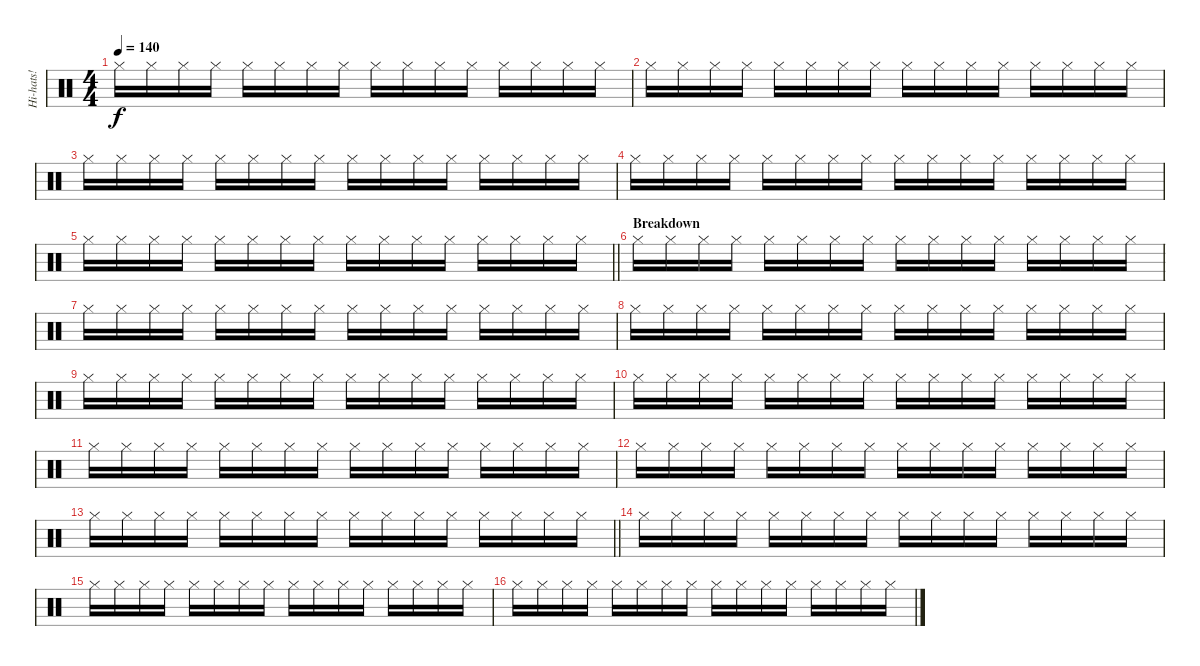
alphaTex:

\track ("Hi-hats!" "Hi-hats!") {instrument percussion}
\staff {score}
\articulation defaults
\ts (4 4)
\tempo 140
\clef neutral
\ks c "Hi-Hat (closed)".16{dy f} "Hi-Hat (closed)".16 "Hi-Hat (closed)".16 "Hi-Hat (closed)".16 "Hi-Hat (closed)".16 "Hi-Hat (closed)".16 "Hi-Hat (closed)".16 "Hi-Hat (closed)".16 "Hi-Hat (closed)".16 "Hi-Hat (closed)".16 "Hi-Hat (closed)".16 "Hi-Hat (closed)".16 "Hi-Hat (closed)".16 "Hi-Hat (closed)".16 "Hi-Hat (closed)".16 "Hi-Hat (closed)".16
|
"Hi-Hat (closed)".16 "Hi-Hat (closed)".16 "Hi-Hat (closed)".16 "Hi-Hat (closed)".16 "Hi-Hat (closed)".16 "Hi-Hat (closed)".16 "Hi-Hat (closed)".16 "Hi-Hat (closed)".16 "Hi-Hat (closed)".16 "Hi-Hat (closed)".16 "Hi-Hat (closed)".16 "Hi-Hat (closed)".16 "Hi-Hat (closed)".16 "Hi-Hat (closed)".16 "Hi-Hat (closed)".16 "Hi-Hat (closed)".16 |
"Hi-Hat (closed)".16 "Hi-Hat (closed)".16 "Hi-Hat (closed)".16 "Hi-Hat (closed)".16 "Hi-Hat (closed)".16 "Hi-Hat (closed)".16 "Hi-Hat (closed)".16 "Hi-Hat (closed)".16 "Hi-Hat (closed)".16 "Hi-Hat (closed)".16 "Hi-Hat (closed)".16 "Hi-Hat (closed)".16 "Hi-Hat (closed)".16 "Hi-Hat (closed)".16 "Hi-Hat (closed)".16 "Hi-Hat (closed)".16 |
"Hi-Hat (closed)".16 "Hi-Hat (closed)".16 "Hi-Hat (closed)".16 "Hi-Hat (closed)".16 "Hi-Hat (closed)".16 "Hi-Hat (closed)".16 "Hi-Hat (closed)".16 "Hi-Hat (closed)".16 "Hi-Hat (closed)".16 "Hi-Hat (closed)".16 "Hi-Hat (closed)".16 "Hi-Hat (closed)".16 "Hi-Hat (closed)".16 "Hi-Hat (closed)".16 "Hi-Hat (closed)".16 "Hi-Hat (closed)".16 |
\barLineRight lightlight "Hi-Hat (closed)".16 "Hi-Hat (closed)".16 "Hi-Hat (closed)".16 "Hi-Hat (closed)".16 "Hi-Hat (closed)".16 "Hi-Hat (closed)".16 "Hi-Hat (closed)".16 "Hi-Hat (closed)".16 "Hi-Hat (closed)".16 "Hi-Hat (closed)".16 "Hi-Hat (closed)".16 "Hi-Hat (closed)".16 "Hi-Hat (closed)".16 "Hi-Hat (closed)".16 "Hi-Hat (closed)".16 "Hi-Hat (closed)".16
|
\section ("" "Breakdown")
"Hi-Hat (closed)".16 "Hi-Hat (closed)".16 "Hi-Hat (closed)".16 "Hi-Hat (closed)".16 "Hi-Hat (closed)".16 "Hi-Hat (closed)".16 "Hi-Hat (closed)".16 "Hi-Hat (closed)".16 "Hi-Hat (closed)".16 "Hi-Hat (closed)".16 "Hi-Hat (closed)".16 "Hi-Hat (closed)".16 "Hi-Hat (closed)".16 "Hi-Hat (closed)".16 "Hi-Hat (closed)".16 "Hi-Hat (closed)".16 |
"Hi-Hat (closed)".16 "Hi-Hat (closed)".16 "Hi-Hat (closed)".16 "Hi-Hat (closed)".16 "Hi-Hat (closed)".16 "Hi-Hat (closed)".16 "Hi-Hat (closed)".16 "Hi-Hat (closed)".16 "Hi-Hat (closed)".16 "Hi-Hat (closed)".16 "Hi-Hat (closed)".16 "Hi-Hat (closed)".16 "Hi-Hat (closed)".16 "Hi-Hat (closed)".16 "Hi-Hat (closed)".16 "Hi-Hat (closed)".16 |
"Hi-Hat (closed)".16 "Hi-Hat (closed)".16 "Hi-Hat (closed)".16 "Hi-Hat (closed)".16 "Hi-Hat (closed)".16 "Hi-Hat (closed)".16 "Hi-Hat (closed)".16 "Hi-Hat (closed)".16 "Hi-Hat (closed)".16 "Hi-Hat (closed)".16 "Hi-Hat (closed)".16 "Hi-Hat (closed)".16 "Hi-Hat (closed)".16 "Hi-Hat (closed)".16 "Hi-Hat (closed)".16 "Hi-Hat (closed)".16 |
"Hi-Hat (closed)".16 "Hi-Hat (closed)".16 "Hi-Hat (closed)".16 "Hi-Hat (closed)".16 "Hi-Hat (closed)".16 "Hi-Hat (closed)".16 "Hi-Hat (closed)".16 "Hi-Hat (closed)".16 "Hi-Hat (closed)".16 "Hi-Hat (closed)".16 "Hi-Hat (closed)".16 "Hi-Hat (closed)".16 "Hi-Hat (closed)".16 "Hi-Hat (closed)".16 "Hi-Hat (closed)".16 "Hi-Hat (closed)".16 |
"Hi-Hat (closed)".16 "Hi-Hat (closed)".16 "Hi-Hat (closed)".16 "Hi-Hat (closed)".16 "Hi-Hat (closed)".16 "Hi-Hat (closed)".16 "Hi-Hat (closed)".16 "Hi-Hat (closed)".16 "Hi-Hat (closed)".16 "Hi-Hat (closed)".16 "Hi-Hat (closed)".16 "Hi-Hat (closed)".16 "Hi-Hat (closed)".16 "Hi-Hat (closed)".16 "Hi-Hat (closed)".16 "Hi-Hat (closed)".16 |
"Hi-Hat (closed)".16 "Hi-Hat (closed)".16 "Hi-Hat (closed)".16 "Hi-Hat (closed)".16 "Hi-Hat (closed)".16 "Hi-Hat (closed)".16 "Hi-Hat (closed)".16 "Hi-Hat (closed)".16 "Hi-Hat (closed)".16 "Hi-Hat (closed)".16 "Hi-Hat (closed)".16 "Hi-Hat (closed)".16 "Hi-Hat (closed)".16 "Hi-Hat (closed)".16 "Hi-Hat (closed)".16 "Hi-Hat (closed)".16 |
"Hi-Hat (closed)".16 "Hi-Hat (closed)".16 "Hi-Hat (closed)".16 "Hi-Hat (closed)".16 "Hi-Hat (closed)".16 "Hi-Hat (closed)".16 "Hi-Hat (closed)".16 "Hi-Hat (closed)".16 "Hi-Hat (closed)".16 "Hi-Hat (closed)".16 "Hi-Hat (closed)".16 "Hi-Hat (closed)".16 "Hi-Hat (closed)".16 "Hi-Hat (closed)".16 "Hi-Hat (closed)".16 "Hi-Hat (closed)".16 |
\barLineRight lightlight "Hi-Hat (closed)".16 "Hi-Hat (closed)".16 "Hi-Hat (closed)".16 "Hi-Hat (closed)".16 "Hi-Hat (closed)".16 "Hi-Hat (closed)".16 "Hi-Hat (closed)".16 "Hi-Hat (closed)".16 "Hi-Hat (closed)".16 "Hi-Hat (closed)".16 "Hi-Hat (closed)".16 "Hi-Hat (closed)".16 "Hi-Hat (closed)".16 "Hi-Hat (closed)".16 "Hi-Hat (closed)".16 "Hi-Hat (closed)".16
|
"Hi-Hat (closed)".16 "Hi-Hat (closed)".16 "Hi-Hat (closed)".16 "Hi-Hat (closed)".16 "Hi-Hat (closed)".16 "Hi-Hat (closed)".16 "Hi-Hat (closed)".16 "Hi-Hat (closed)".16 "Hi-Hat (closed)".16 "Hi-Hat (closed)".16 "Hi-Hat (closed)".16 "Hi-Hat (closed)".16 "Hi-Hat (closed)".16 "Hi-Hat (closed)".16 "Hi-Hat (closed)".16 "Hi-Hat (closed)".16 |
"Hi-Hat (closed)".16 "Hi-Hat (closed)".16 "Hi-Hat (closed)".16 "Hi-Hat (closed)".16 "Hi-Hat (closed)".16 "Hi-Hat (closed)".16 "Hi-Hat (closed)".16 "Hi-Hat (closed)".16 "Hi-Hat (closed)".16 "Hi-Hat (closed)".16 "Hi-Hat (closed)".16 "Hi-Hat (closed)".16 "Hi-Hat (closed)".16 "Hi-Hat (closed)".16 "Hi-Hat (closed)".16 "Hi-Hat (closed)".16 |
"Hi-Hat (closed)".16 "Hi-Hat (closed)".16 "Hi-Hat (closed)".16 "Hi-Hat (closed)".16 "Hi-Hat (closed)".16 "Hi-Hat (closed)".16 "Hi-Hat (closed)".16 "Hi-Hat (closed)".16 "Hi-Hat (closed)".16 "Hi-Hat (closed)".16 "Hi-Hat (closed)".16 "Hi-Hat (closed)".16 "Hi-Hat (closed)".16 "Hi-Hat (closed)".16 "Hi-Hat (closed)".16 "Hi-Hat (closed)".16
